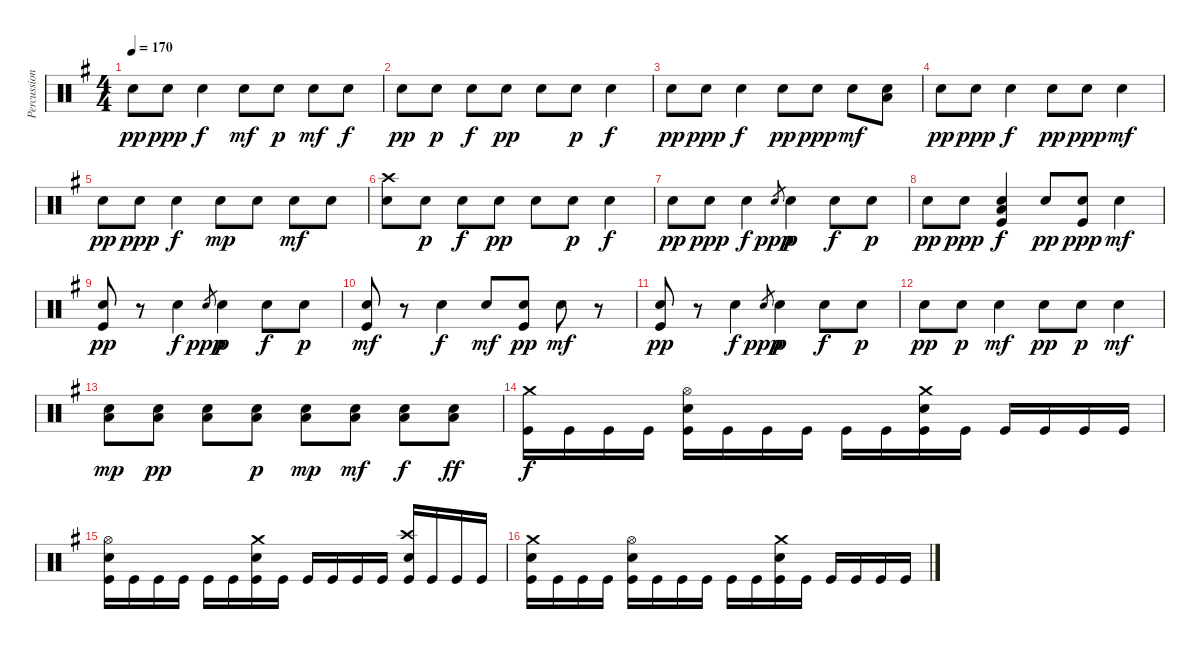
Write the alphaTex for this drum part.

\track ("Percussion" "Percussion") {instrument percussion}
\staff {score}
\articulation defaults
\ts (4 4)
\tempo 170
\clef neutral
\ks g "Snare (hit) 2".8{dy pp} "Snare (hit) 2".8{dy ppp} "Snare (hit) 2".4{dy f} "Snare (hit) 2".8{dy mf} "Snare (hit) 2".8{dy p} "Snare (hit) 2".8{dy mf} "Snare (hit) 2".8{dy f}
|
"Snare (hit) 2".8{dy pp} "Snare (hit) 2".8{dy p} "Snare (hit) 2".8{dy f} "Snare (hit) 2".8{dy pp} "Snare (hit) 2".8 "Snare (hit) 2".8{dy p} "Snare (hit) 2".4{dy f} |
"Snare (hit) 2".8{dy pp} "Snare (hit) 2".8{dy ppp} "Snare (hit) 2".4{dy f} "Snare (hit) 2".8{dy pp} "Snare (hit) 2".8{dy ppp} "Snare (hit) 2".8{dy mf} ("Low Floor Tom (hit)" "Snare (hit) 2").8 |
"Snare (hit) 2".8{dy pp} "Snare (hit) 2".8{dy ppp} "Snare (hit) 2".4{dy f} "Snare (hit) 2".8{dy pp} "Snare (hit) 2".8{dy ppp} "Snare (hit) 2".4{dy mf} |
"Snare (hit) 2".8{dy pp} "Snare (hit) 2".8{dy ppp} "Snare (hit) 2".4{dy f} "Snare (hit) 2".8{dy mp} "Snare (hit) 2".8 "Snare (hit) 2".8{dy mf} "Snare (hit) 2".8 |
("Crash high (hit)" "Snare (hit) 2").8 "Snare (hit) 2".8{dy p} "Snare (hit) 2".8{dy f} "Snare (hit) 2".8{dy pp} "Snare (hit) 2".8 "Snare (hit) 2".8{dy p} "Snare (hit) 2".4{dy f} |
"Snare (hit) 2".8{dy pp} "Snare (hit) 2".8{dy ppp} "Snare (hit) 2".4{dy f} "Snare (hit)".8{gr dy ppp} "Snare (hit) 2".4{dy p} "Snare (hit) 2".8{dy f} "Snare (hit) 2".8{dy p} |
"Snare (hit) 2".8{dy pp} "Snare (hit) 2".8{dy ppp} ("Low Floor Tom (hit)" "Snare (hit) 2" "Kick (hit)").4{dy f} "Snare (hit) 2".8{dy pp} ("Snare (hit) 2" "Kick (hit)").8{dy ppp} "Snare (hit) 2".4{dy mf} |
("Snare (hit) 2" "Kick (hit)").8{dy pp} r.8 "Snare (hit) 2".4{dy f} "Snare (hit)".8{gr dy ppp} "Snare (hit) 2".4{dy p} "Snare (hit) 2".8{dy f} "Snare (hit) 2".8{dy p} |
("Snare (hit) 2" "Kick (hit)").8{dy mf} r.8 "Snare (hit) 2".4{dy f} "Snare (hit) 2".8{dy mf} ("Snare (hit) 2" "Kick (hit)").8{dy pp} "Snare (hit) 2".8{dy mf} r.8 |
("Snare (hit) 2" "Kick (hit)").8{dy pp} r.8 "Snare (hit) 2".4{dy f} "Snare (hit)".8{gr dy ppp} "Snare (hit) 2".4{dy p} "Snare (hit) 2".8{dy f} "Snare (hit) 2".8{dy p} |
"Snare (hit) 2".8{dy pp} "Snare (hit) 2".8{dy p} "Snare (hit) 2".4{dy mf} "Snare (hit) 2".8{dy pp} "Snare (hit) 2".8{dy p} "Snare (hit) 2".4{dy mf} |
("Low Floor Tom (hit)" "Snare (hit) 2").8{dy mp} ("Low Floor Tom (hit)" "Snare (hit) 2").8{dy pp} ("Low Floor Tom (hit)" "Snare (hit) 2").8 ("Low Floor Tom (hit)" "Snare (hit) 2").8{dy p} ("Low Floor Tom (hit)" "Snare (hit) 2").8{dy mp} ("Low Floor Tom (hit)" "Snare (hit) 2").8{dy mf} ("Low Floor Tom (hit)" "Snare (hit) 2").8{dy f} ("Low Floor Tom (hit)" "Snare (hit) 2").8{dy ff} |
("Crash medium (hit)" "Kick (hit)").16{dy f} "Kick (hit)".16 "Kick (hit)".16 "Kick (hit)".16 ("Hi-Hat (open)" "Snare (hit) 2" "Kick (hit)").16 "Kick (hit)".16 "Kick (hit)".16 "Kick (hit)".16 "Kick (hit)".16 "Kick (hit)".16 ("Crash medium (hit)" "Snare (hit) 2" "Kick (hit)").16 "Kick (hit)".16 "Kick (hit)".16 "Kick (hit)".16 "Kick (hit)".16 "Kick (hit)".16 |
("Hi-Hat (open)" "Snare (hit) 2" "Kick (hit)").16 "Kick (hit)".16 "Kick (hit)".16 "Kick (hit)".16 "Kick (hit)".16 "Kick (hit)".16 ("Crash medium (hit)" "Snare (hit) 2" "Kick (hit)").16 "Kick (hit)".16 "Kick (hit)".16 "Kick (hit)".16 "Kick (hit)".16 "Kick (hit)".16 ("Crash high (hit)" "Snare (hit) 2" "Kick (hit)").16 "Kick (hit)".16 "Kick (hit)".16 "Kick (hit)".16 |
("Crash medium (hit)" "Snare (hit) 2" "Kick (hit)").16 "Kick (hit)".16 "Kick (hit)".16 "Kick (hit)".16 ("Hi-Hat (open)" "Snare (hit) 2" "Kick (hit)").16 "Kick (hit)".16 "Kick (hit)".16 "Kick (hit)".16 "Kick (hit)".16 "Kick (hit)".16 ("Crash medium (hit)" "Snare (hit) 2" "Kick (hit)").16 "Kick (hit)".16 "Kick (hit)".16 "Kick (hit)".16 "Kick (hit)".16 "Kick (hit)".16
